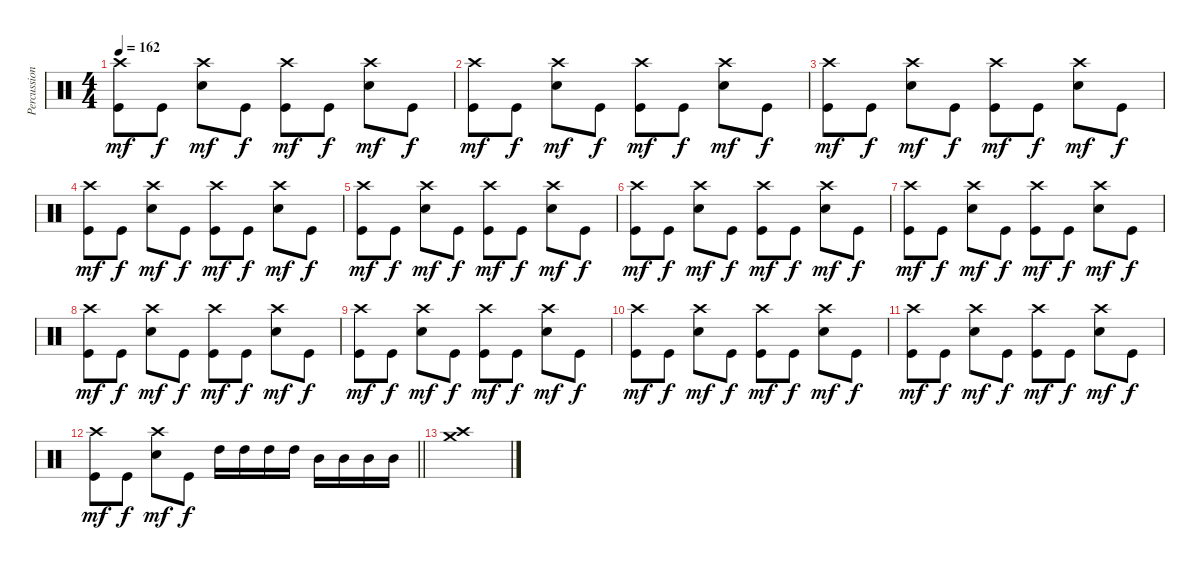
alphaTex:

\track ("Percussions" "Percussion") {instrument percussion}
\staff {score}
\articulation defaults
\ts (4 4)
\tempo 162
\clef neutral
\ks c
("Crash high (hit)" "Kick (hit)").8{dy mf} "Kick (hit)".8{dy f} ("Crash high (hit)" "Electric Snare (hit)").8{dy mf} "Kick (hit)".8{dy f} ("Crash high (hit)" "Kick (hit)").8{dy mf} "Kick (hit)".8{dy f} ("Crash high (hit)" "Electric Snare (hit)").8{dy mf} "Kick (hit)".8{dy f} |
("Crash high (hit)" "Kick (hit)").8{dy mf} "Kick (hit)".8{dy f} ("Crash high (hit)" "Electric Snare (hit)").8{dy mf} "Kick (hit)".8{dy f} ("Crash high (hit)" "Kick (hit)").8{dy mf} "Kick (hit)".8{dy f} ("Crash high (hit)" "Electric Snare (hit)").8{dy mf} "Kick (hit)".8{dy f} |
("Crash high (hit)" "Kick (hit)").8{dy mf} "Kick (hit)".8{dy f} ("Crash high (hit)" "Electric Snare (hit)").8{dy mf} "Kick (hit)".8{dy f} ("Crash high (hit)" "Kick (hit)").8{dy mf} "Kick (hit)".8{dy f} ("Crash high (hit)" "Electric Snare (hit)").8{dy mf} "Kick (hit)".8{dy f} |
("Crash high (hit)" "Kick (hit)").8{dy mf} "Kick (hit)".8{dy f} ("Crash high (hit)" "Electric Snare (hit)").8{dy mf} "Kick (hit)".8{dy f} ("Crash high (hit)" "Kick (hit)").8{dy mf} "Kick (hit)".8{dy f} ("Crash high (hit)" "Electric Snare (hit)").8{dy mf} "Kick (hit)".8{dy f} |
("Crash high (hit)" "Kick (hit)").8{dy mf} "Kick (hit)".8{dy f} ("Crash high (hit)" "Electric Snare (hit)").8{dy mf} "Kick (hit)".8{dy f} ("Crash high (hit)" "Kick (hit)").8{dy mf} "Kick (hit)".8{dy f} ("Crash high (hit)" "Electric Snare (hit)").8{dy mf} "Kick (hit)".8{dy f} |
("Crash high (hit)" "Kick (hit)").8{dy mf} "Kick (hit)".8{dy f} ("Crash high (hit)" "Electric Snare (hit)").8{dy mf} "Kick (hit)".8{dy f} ("Crash high (hit)" "Kick (hit)").8{dy mf} "Kick (hit)".8{dy f} ("Crash high (hit)" "Electric Snare (hit)").8{dy mf} "Kick (hit)".8{dy f} |
("Crash high (hit)" "Kick (hit)").8{dy mf} "Kick (hit)".8{dy f} ("Crash high (hit)" "Electric Snare (hit)").8{dy mf} "Kick (hit)".8{dy f} ("Crash high (hit)" "Kick (hit)").8{dy mf} "Kick (hit)".8{dy f} ("Crash high (hit)" "Electric Snare (hit)").8{dy mf} "Kick (hit)".8{dy f} |
("Crash high (hit)" "Kick (hit)").8{dy mf} "Kick (hit)".8{dy f} ("Crash high (hit)" "Electric Snare (hit)").8{dy mf} "Kick (hit)".8{dy f} ("Crash high (hit)" "Kick (hit)").8{dy mf} "Kick (hit)".8{dy f} ("Crash high (hit)" "Electric Snare (hit)").8{dy mf} "Kick (hit)".8{dy f} |
("Crash high (hit)" "Kick (hit)").8{dy mf} "Kick (hit)".8{dy f} ("Crash high (hit)" "Electric Snare (hit)").8{dy mf} "Kick (hit)".8{dy f} ("Crash high (hit)" "Kick (hit)").8{dy mf} "Kick (hit)".8{dy f} ("Crash high (hit)" "Electric Snare (hit)").8{dy mf} "Kick (hit)".8{dy f} |
("Crash high (hit)" "Kick (hit)").8{dy mf} "Kick (hit)".8{dy f} ("Crash high (hit)" "Electric Snare (hit)").8{dy mf} "Kick (hit)".8{dy f} ("Crash high (hit)" "Kick (hit)").8{dy mf} "Kick (hit)".8{dy f} ("Crash high (hit)" "Electric Snare (hit)").8{dy mf} "Kick (hit)".8{dy f} |
("Crash high (hit)" "Kick (hit)").8{dy mf} "Kick (hit)".8{dy f} ("Crash high (hit)" "Electric Snare (hit)").8{dy mf} "Kick (hit)".8{dy f} ("Crash high (hit)" "Kick (hit)").8{dy mf} "Kick (hit)".8{dy f} ("Crash high (hit)" "Electric Snare (hit)").8{dy mf} "Kick (hit)".8{dy f} |
\barLineRight lightlight
("Crash high (hit)" "Kick (hit)").8{dy mf} "Kick (hit)".8{dy f} ("Crash high (hit)" "Electric Snare (hit)").8{dy mf} "Kick (hit)".8{dy f} "High Tom (hit)".16 "High Tom (hit)".16 "High Tom (hit)".16 "High Tom (hit)".16 "Mid Tom (hit)".16 "Mid Tom (hit)".16 "Mid Tom (hit)".16 "Mid Tom (hit)".16 |
("Crash medium (hit)" "Crash high (hit)").1
